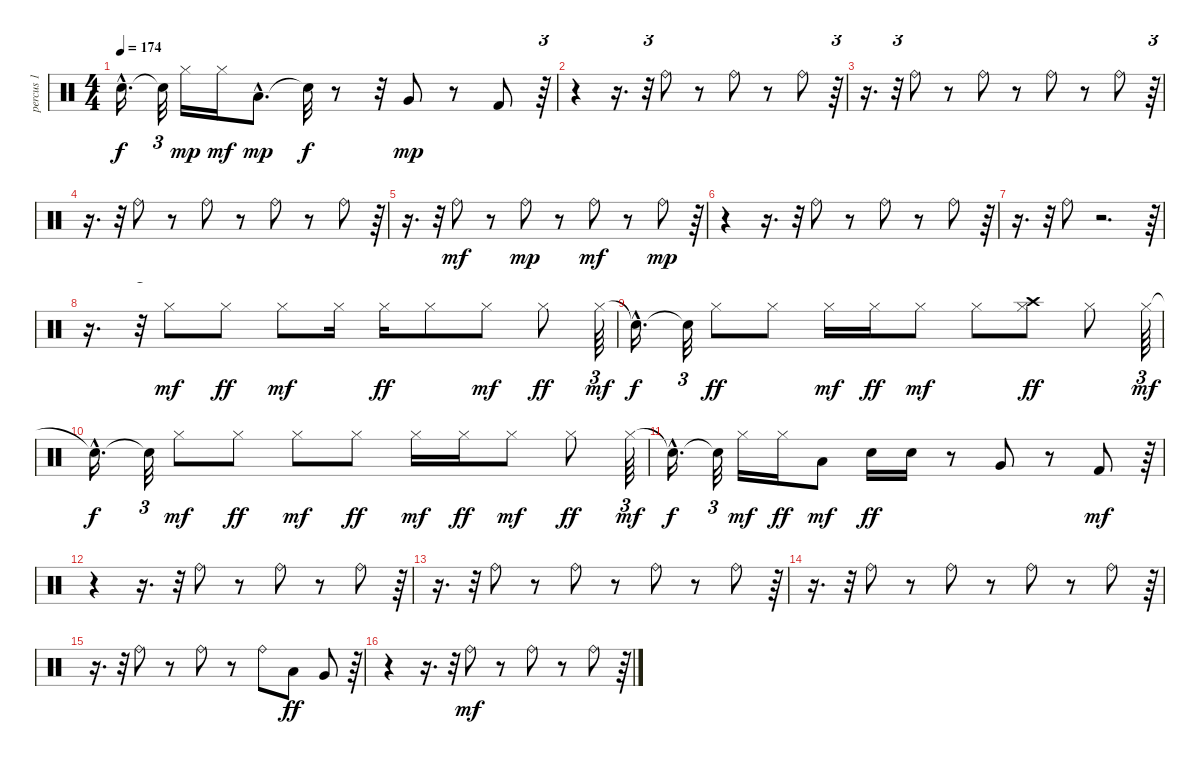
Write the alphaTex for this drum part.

\track ("percus 1" "percus 1") {instrument percussion}
\staff {score}
\articulation defaults
\ts (4 4)
\tempo 174
\clef neutral
\ks c "Snare (hit)"{hac t}.16{d dy f} "Snare (hit)"{t}.32{tu (3 2)} "Hi-Hat (closed)".16{dy mp} "Hi-Hat (closed)".16{dy mf} "Low Tom (hit)"{hac}.8{d dy mp} "Snare (hit)"{t}.32{dy f}
r.8 r.32 "Very Low Tom (hit)".8{dy mp} r.8 "Kick (hit) 2".8 r.64{tu (3 2)} |
r.4 r.16{d} r.32{tu (3 2)} "Ride (bell)".8 r.8 "Ride (bell)".8 r.8 "Ride (bell)".8 r.64{tu (3 2)} |
r.16{d} r.32{tu (3 2)} "Ride (bell)".8 r.8 "Ride (bell)".8 r.8 "Ride (bell)".8 r.8 "Ride (bell)".8 r.64{tu (3 2)} |
r.16{d} r.32{tu (3 2)} "Ride (bell)".8 r.8 "Ride (bell)".8 r.8 "Ride (bell)".8 r.8 "Ride (bell)".8 r.64{tu (3 2)} |
r.16{d} r.32{tu (3 2)} "Ride (bell)".8{dy mf} r.8 "Ride (bell)".8{dy mp} r.8 "Ride (bell)".8{dy mf} r.8 "Ride (bell)".8{dy mp} r.64{tu (3 2)} |
r.4 r.16{d} r.32{tu (3 2)} "Ride (bell)".8 r.8 "Ride (bell)".8 r.8 "Ride (bell)".8 r.64{tu (3 2)} |
r.16{d} r.32{tu (3 2)} "Ride (bell)".8 r.2{d} r.64{tu (3 2)} |
r.16{d} r.32{tu (3 2)} "Hi-Hat (closed)".8{dy mf} "Hi-Hat (closed)".8{dy ff} "Hi-Hat (closed)".8{dy mf} "Hi-Hat (closed)".16 "Hi-Hat (closed)".16{dy ff} "Hi-Hat (closed)".8 "Hi-Hat (closed)".8{dy mf} "Hi-Hat (closed)".8{dy ff} "Hi-Hat (closed)".64{tu (3 2) dy mf} |
"Snare (hit)"{hac t}.16{d dy f} "Snare (hit)"{t}.32{tu (3 2)} "Hi-Hat (closed)".8{dy ff} "Hi-Hat (closed)".8 "Hi-Hat (closed)".16{dy mf} "Hi-Hat (closed)".16{dy ff} "Hi-Hat (closed)".8{dy mf} "Hi-Hat (closed)".8 ("Hi-Hat (closed)" "Crash high (hit)").8{dy ff} "Hi-Hat (closed)".8 "Hi-Hat (closed)".64{tu (3 2) dy mf} |
"Snare (hit)"{hac t}.16{d dy f} "Snare (hit)"{t}.32{tu (3 2)} "Hi-Hat (closed)".8{dy mf} "Hi-Hat (closed)".8{dy ff} "Hi-Hat (closed)".8{dy mf} "Hi-Hat (closed)".8{dy ff} "Hi-Hat (closed)".16{dy mf} "Hi-Hat (closed)".16{dy ff} "Hi-Hat (closed)".8{dy mf} "Hi-Hat (closed)".8{dy ff} "Hi-Hat (closed)".64{tu (3 2) dy mf} |
"Snare (hit)"{hac t}.16{d dy f} "Snare (hit)"{t}.32{tu (3 2)} "Hi-Hat (closed)".16{dy mf} "Hi-Hat (closed)".16{dy ff} "Low Tom (hit)".8{dy mf} "Electric Snare (hit)".16{dy ff} "Electric Snare (hit)".16 r.8 "Very Low Tom (hit)".8 r.8 "Kick (hit) 2".8{dy mf} r.64{tu (3 2)} |
r.4 r.16{d} r.32{tu (3 2)} "Ride (bell)".8 r.8 "Ride (bell)".8 r.8 "Ride (bell)".8 r.64{tu (3 2)} |
r.16{d} r.32{tu (3 2)} "Ride (bell)".8 r.8 "Ride (bell)".8 r.8 "Ride (bell)".8 r.8 "Ride (bell)".8 r.64{tu (3 2)} |
r.16{d} r.32{tu (3 2)} "Ride (bell)".8 r.8 "Ride (bell)".8 r.8 "Ride (bell)".8 r.8 "Ride (bell)".8 r.64{tu (3 2)} |
r.16{d} r.32{tu (3 2)} "Ride (bell)".8 r.8 "Ride (bell)".8 r.8 "Ride (bell)".8 "Low Tom (hit)".8{dy ff} "Very Low Tom (hit)".8 r.64{tu (3 2)} |
r.4 r.16{d} r.32{tu (3 2)} "Ride (bell)".8{dy mf} r.8 "Ride (bell)".8 r.8 "Ride (bell)".8 r.64{tu (3 2)}
